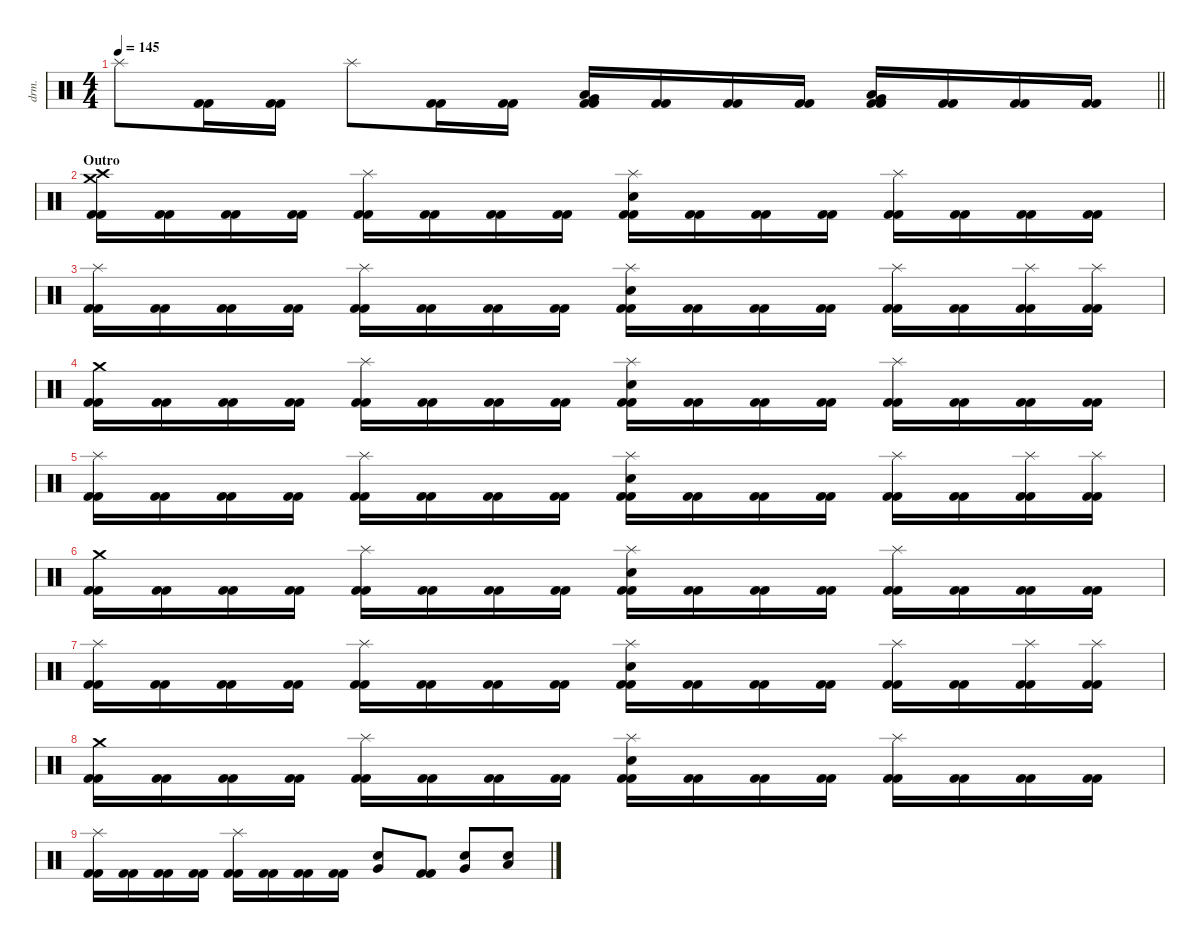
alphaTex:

\defaultSystemsLayout 4
\hideDynamics
\bracketExtendMode nobrackets
\otherSystemsTrackNameOrientation horizontal
\track ("Chris Adler" "drm.") {instrument percussion}
\staff {score}
\articulation defaults
\ts (4 4)
\tempo 145
\clef neutral
\barLineRight lightlight
\ks c "Splash (hit)".8{dy f}
("Kick (hit) 2" "Kick (hit) 2").16 ("Kick (hit) 2" "Kick (hit) 2").16 "Splash (hit)".8 ("Kick (hit) 2" "Kick (hit) 2").16 ("Kick (hit) 2" "Kick (hit) 2").16 ("Low Tom (hit)" "Very Low Tom (hit)" "Kick (hit) 2" "Kick (hit) 2").16 ("Kick (hit) 2" "Kick (hit) 2").16 ("Kick (hit) 2" "Kick (hit) 2").16 ("Kick (hit) 2" "Kick (hit) 2").16 ("Very Low Tom (hit)" "Low Floor Tom (hit)" "Kick (hit) 2" "Kick (hit) 2").16 ("Kick (hit) 2" "Kick (hit) 2").16 ("Kick (hit) 2" "Kick (hit) 2").16 ("Kick (hit) 2" "Kick (hit) 2").16 |
\section ("" "Outro")
("Crash medium (hit)" "Crash high (hit)" "Kick (hit) 2" "Kick (hit) 2").16 ("Kick (hit) 2" "Kick (hit) 2").16 ("Kick (hit) 2" "Kick (hit) 2").16 ("Kick (hit) 2" "Kick (hit) 2").16 ("Splash (hit)" "Kick (hit) 2" "Kick (hit) 2").16 ("Kick (hit) 2" "Kick (hit) 2").16 ("Kick (hit) 2" "Kick (hit) 2").16 ("Kick (hit) 2" "Kick (hit) 2").16 ("Splash (hit)" "Snare (hit) 2" "Kick (hit) 2" "Kick (hit) 2").16 ("Kick (hit) 2" "Kick (hit) 2").16 ("Kick (hit) 2" "Kick (hit) 2").16 ("Kick (hit) 2" "Kick (hit) 2").16 ("Splash (hit)" "Kick (hit) 2" "Kick (hit) 2").16 ("Kick (hit) 2" "Kick (hit) 2").16 ("Kick (hit) 2" "Kick (hit) 2").16 ("Kick (hit) 2" "Kick (hit) 2").16 |
("Splash (hit)" "Kick (hit) 2" "Kick (hit) 2").16 ("Kick (hit) 2" "Kick (hit) 2").16 ("Kick (hit) 2" "Kick (hit) 2").16 ("Kick (hit) 2" "Kick (hit) 2").16 ("Splash (hit)" "Kick (hit) 2" "Kick (hit) 2").16 ("Kick (hit) 2" "Kick (hit) 2").16 ("Kick (hit) 2" "Kick (hit) 2").16 ("Kick (hit) 2" "Kick (hit) 2").16 ("Splash (hit)" "Snare (hit) 2" "Kick (hit) 2" "Kick (hit) 2").16 ("Kick (hit) 2" "Kick (hit) 2").16 ("Kick (hit) 2" "Kick (hit) 2").16 ("Kick (hit) 2" "Kick (hit) 2").16 ("Splash (hit)" "Kick (hit) 2" "Kick (hit) 2").16 ("Kick (hit) 2" "Kick (hit) 2").16 ("Splash (hit)" "Kick (hit) 2" "Kick (hit) 2").16 ("Splash (hit)" "Kick (hit) 2" "Kick (hit) 2").16 |
("Crash medium (hit)" "Kick (hit) 2" "Kick (hit) 2").16 ("Kick (hit) 2" "Kick (hit) 2").16 ("Kick (hit) 2" "Kick (hit) 2").16 ("Kick (hit) 2" "Kick (hit) 2").16 ("Splash (hit)" "Kick (hit) 2" "Kick (hit) 2").16 ("Kick (hit) 2" "Kick (hit) 2").16 ("Kick (hit) 2" "Kick (hit) 2").16 ("Kick (hit) 2" "Kick (hit) 2").16 ("Splash (hit)" "Snare (hit) 2" "Kick (hit) 2" "Kick (hit) 2").16 ("Kick (hit) 2" "Kick (hit) 2").16 ("Kick (hit) 2" "Kick (hit) 2").16 ("Kick (hit) 2" "Kick (hit) 2").16 ("Splash (hit)" "Kick (hit) 2" "Kick (hit) 2").16 ("Kick (hit) 2" "Kick (hit) 2").16 ("Kick (hit) 2" "Kick (hit) 2").16 ("Kick (hit) 2" "Kick (hit) 2").16 |
("Splash (hit)" "Kick (hit) 2" "Kick (hit) 2").16 ("Kick (hit) 2" "Kick (hit) 2").16 ("Kick (hit) 2" "Kick (hit) 2").16 ("Kick (hit) 2" "Kick (hit) 2").16 ("Splash (hit)" "Kick (hit) 2" "Kick (hit) 2").16 ("Kick (hit) 2" "Kick (hit) 2").16 ("Kick (hit) 2" "Kick (hit) 2").16 ("Kick (hit) 2" "Kick (hit) 2").16 ("Splash (hit)" "Snare (hit) 2" "Kick (hit) 2" "Kick (hit) 2").16 ("Kick (hit) 2" "Kick (hit) 2").16 ("Kick (hit) 2" "Kick (hit) 2").16 ("Kick (hit) 2" "Kick (hit) 2").16 ("Splash (hit)" "Kick (hit) 2" "Kick (hit) 2").16 ("Kick (hit) 2" "Kick (hit) 2").16 ("Splash (hit)" "Kick (hit) 2" "Kick (hit) 2").16 ("Splash (hit)" "Kick (hit) 2" "Kick (hit) 2").16 |
("Crash medium (hit)" "Kick (hit) 2" "Kick (hit) 2").16 ("Kick (hit) 2" "Kick (hit) 2").16 ("Kick (hit) 2" "Kick (hit) 2").16 ("Kick (hit) 2" "Kick (hit) 2").16 ("Splash (hit)" "Kick (hit) 2" "Kick (hit) 2").16 ("Kick (hit) 2" "Kick (hit) 2").16 ("Kick (hit) 2" "Kick (hit) 2").16 ("Kick (hit) 2" "Kick (hit) 2").16 ("Splash (hit)" "Snare (hit) 2" "Kick (hit) 2" "Kick (hit) 2").16 ("Kick (hit) 2" "Kick (hit) 2").16 ("Kick (hit) 2" "Kick (hit) 2").16 ("Kick (hit) 2" "Kick (hit) 2").16 ("Splash (hit)" "Kick (hit) 2" "Kick (hit) 2").16 ("Kick (hit) 2" "Kick (hit) 2").16 ("Kick (hit) 2" "Kick (hit) 2").16 ("Kick (hit) 2" "Kick (hit) 2").16 |
("Splash (hit)" "Kick (hit) 2" "Kick (hit) 2").16 ("Kick (hit) 2" "Kick (hit) 2").16 ("Kick (hit) 2" "Kick (hit) 2").16 ("Kick (hit) 2" "Kick (hit) 2").16 ("Splash (hit)" "Kick (hit) 2" "Kick (hit) 2").16 ("Kick (hit) 2" "Kick (hit) 2").16 ("Kick (hit) 2" "Kick (hit) 2").16 ("Kick (hit) 2" "Kick (hit) 2").16 ("Splash (hit)" "Snare (hit) 2" "Kick (hit) 2" "Kick (hit) 2").16 ("Kick (hit) 2" "Kick (hit) 2").16 ("Kick (hit) 2" "Kick (hit) 2").16 ("Kick (hit) 2" "Kick (hit) 2").16 ("Splash (hit)" "Kick (hit) 2" "Kick (hit) 2").16 ("Kick (hit) 2" "Kick (hit) 2").16 ("Splash (hit)" "Kick (hit) 2" "Kick (hit) 2").16 ("Splash (hit)" "Kick (hit) 2" "Kick (hit) 2").16 |
("Crash medium (hit)" "Kick (hit) 2" "Kick (hit) 2").16 ("Kick (hit) 2" "Kick (hit) 2").16 ("Kick (hit) 2" "Kick (hit) 2").16 ("Kick (hit) 2" "Kick (hit) 2").16 ("Splash (hit)" "Kick (hit) 2" "Kick (hit) 2").16 ("Kick (hit) 2" "Kick (hit) 2").16 ("Kick (hit) 2" "Kick (hit) 2").16 ("Kick (hit) 2" "Kick (hit) 2").16 ("Splash (hit)" "Snare (hit) 2" "Kick (hit) 2" "Kick (hit) 2").16 ("Kick (hit) 2" "Kick (hit) 2").16 ("Kick (hit) 2" "Kick (hit) 2").16 ("Kick (hit) 2" "Kick (hit) 2").16 ("Splash (hit)" "Kick (hit) 2" "Kick (hit) 2").16 ("Kick (hit) 2" "Kick (hit) 2").16 ("Kick (hit) 2" "Kick (hit) 2").16 ("Kick (hit) 2" "Kick (hit) 2").16 |
("Splash (hit)" "Kick (hit) 2" "Kick (hit) 2").16 ("Kick (hit) 2" "Kick (hit) 2").16 ("Kick (hit) 2" "Kick (hit) 2").16 ("Kick (hit) 2" "Kick (hit) 2").16 ("Splash (hit)" "Kick (hit) 2" "Kick (hit) 2").16 ("Kick (hit) 2" "Kick (hit) 2").16 ("Kick (hit) 2" "Kick (hit) 2").16 ("Kick (hit) 2" "Kick (hit) 2").16 ("Snare (hit) 2" "Very Low Tom (hit)").8 ("Kick (hit) 2" "Kick (hit) 2").8 ("Snare (hit) 2" "Very Low Tom (hit)").8 ("Snare (hit) 2" "Low Floor Tom (hit)").8
